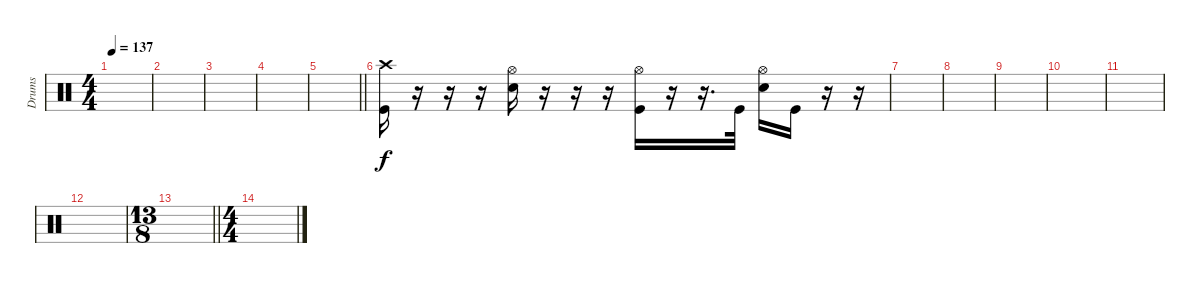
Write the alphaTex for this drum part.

\track ("Drums" "Drums") {instrument percussion}
\staff
\articulation defaults
\ts (4 4)
\tempo 137
\clef neutral
\ks c
|
|
|
|
\barLineRight lightlight
|
\section ("" "")
("Crash high (hit)" "Kick (hit)").16 r.16 r.16 r.16 ("Hi-Hat (open)" "Electric Snare (hit)").16 r.16 r.16 r.16 ("Hi-Hat (open)" "Kick (hit)").16 r.16 r.16{d} "Kick (hit)".32 ("Hi-Hat (open)" "Electric Snare (hit)").16 "Kick (hit)".16 r.16 r.16 |
|
|
|
|
|
|
\ts (13 8)
\barLineRight lightlight
|
\ts (4 4)
